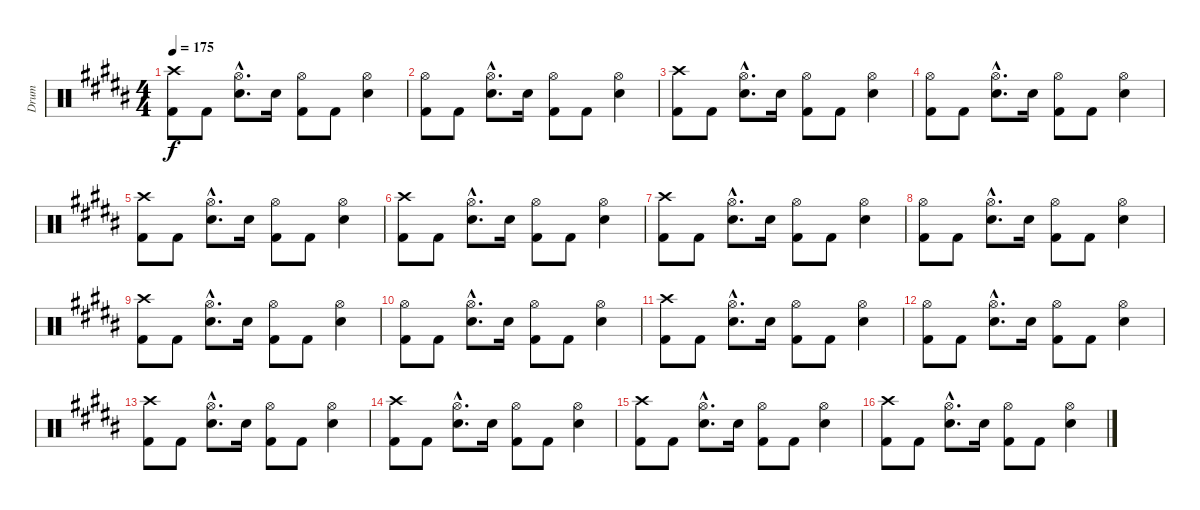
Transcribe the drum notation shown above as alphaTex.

\track ("Drum" "Drum") {instrument percussion}
\staff {score}
\articulation defaults
\ts (4 4)
\tempo 175
\clef neutral
\ks b
("Crash high (hit)" "Kick (hit) 2").8{dy f} "Kick (hit) 2".8 ("Hi-Hat (open)"{hac} "Snare (hit) 2"{hac}).8{d} "Snare (hit) 2".16 ("Hi-Hat (open)" "Kick (hit) 2").8 "Kick (hit) 2".8 ("Hi-Hat (open)" "Snare (hit) 2").4 |
("Hi-Hat (open)" "Kick (hit) 2").8 "Kick (hit) 2".8 ("Hi-Hat (open)"{hac} "Snare (hit) 2"{hac}).8{d} "Snare (hit) 2".16 ("Hi-Hat (open)" "Kick (hit) 2").8 "Kick (hit) 2".8 ("Hi-Hat (open)" "Snare (hit) 2").4 |
("Crash high (hit)" "Kick (hit) 2").8 "Kick (hit) 2".8 ("Hi-Hat (open)"{hac} "Snare (hit) 2"{hac}).8{d} "Snare (hit) 2".16 ("Hi-Hat (open)" "Kick (hit) 2").8 "Kick (hit) 2".8 ("Hi-Hat (open)" "Snare (hit) 2").4 |
("Hi-Hat (open)" "Kick (hit) 2").8 "Kick (hit) 2".8 ("Hi-Hat (open)"{hac} "Snare (hit) 2"{hac}).8{d} "Snare (hit) 2".16 ("Hi-Hat (open)" "Kick (hit) 2").8 "Kick (hit) 2".8 ("Hi-Hat (open)" "Snare (hit) 2").4 |
("Crash high (hit)" "Kick (hit) 2").8 "Kick (hit) 2".8 ("Hi-Hat (open)"{hac} "Snare (hit) 2"{hac}).8{d} "Snare (hit) 2".16 ("Hi-Hat (open)" "Kick (hit) 2").8 "Kick (hit) 2".8 ("Hi-Hat (open)" "Snare (hit) 2").4 |
("Crash high (hit)" "Kick (hit) 2").8 "Kick (hit) 2".8 ("Hi-Hat (open)"{hac} "Snare (hit) 2"{hac}).8{d} "Snare (hit) 2".16 ("Hi-Hat (open)" "Kick (hit) 2").8 "Kick (hit) 2".8 ("Hi-Hat (open)" "Snare (hit) 2").4 |
("Crash high (hit)" "Kick (hit) 2").8 "Kick (hit) 2".8 ("Hi-Hat (open)"{hac} "Snare (hit) 2"{hac}).8{d} "Snare (hit) 2".16 ("Hi-Hat (open)" "Kick (hit) 2").8 "Kick (hit) 2".8 ("Hi-Hat (open)" "Snare (hit) 2").4 |
("Hi-Hat (open)" "Kick (hit) 2").8 "Kick (hit) 2".8 ("Hi-Hat (open)"{hac} "Snare (hit) 2"{hac}).8{d} "Snare (hit) 2".16 ("Hi-Hat (open)" "Kick (hit) 2").8 "Kick (hit) 2".8 ("Hi-Hat (open)" "Snare (hit) 2").4 |
("Crash high (hit)" "Kick (hit) 2").8 "Kick (hit) 2".8 ("Hi-Hat (open)"{hac} "Snare (hit) 2"{hac}).8{d} "Snare (hit) 2".16 ("Hi-Hat (open)" "Kick (hit) 2").8 "Kick (hit) 2".8 ("Hi-Hat (open)" "Snare (hit) 2").4 |
("Hi-Hat (open)" "Kick (hit) 2").8 "Kick (hit) 2".8 ("Hi-Hat (open)"{hac} "Snare (hit) 2"{hac}).8{d} "Snare (hit) 2".16 ("Hi-Hat (open)" "Kick (hit) 2").8 "Kick (hit) 2".8 ("Hi-Hat (open)" "Snare (hit) 2").4 |
("Crash high (hit)" "Kick (hit) 2").8 "Kick (hit) 2".8 ("Hi-Hat (open)"{hac} "Snare (hit) 2"{hac}).8{d} "Snare (hit) 2".16 ("Hi-Hat (open)" "Kick (hit) 2").8 "Kick (hit) 2".8 ("Hi-Hat (open)" "Snare (hit) 2").4 |
("Hi-Hat (open)" "Kick (hit) 2").8 "Kick (hit) 2".8 ("Hi-Hat (open)"{hac} "Snare (hit) 2"{hac}).8{d} "Snare (hit) 2".16 ("Hi-Hat (open)" "Kick (hit) 2").8 "Kick (hit) 2".8 ("Hi-Hat (open)" "Snare (hit) 2").4 |
("Crash high (hit)" "Kick (hit) 2").8 "Kick (hit) 2".8 ("Hi-Hat (open)"{hac} "Snare (hit) 2"{hac}).8{d} "Snare (hit) 2".16 ("Hi-Hat (open)" "Kick (hit) 2").8 "Kick (hit) 2".8 ("Hi-Hat (open)" "Snare (hit) 2").4 |
("Crash high (hit)" "Kick (hit) 2").8 "Kick (hit) 2".8 ("Hi-Hat (open)"{hac} "Snare (hit) 2"{hac}).8{d} "Snare (hit) 2".16 ("Hi-Hat (open)" "Kick (hit) 2").8 "Kick (hit) 2".8 ("Hi-Hat (open)" "Snare (hit) 2").4 |
("Crash high (hit)" "Kick (hit) 2").8 "Kick (hit) 2".8 ("Hi-Hat (open)"{hac} "Snare (hit) 2"{hac}).8{d} "Snare (hit) 2".16 ("Hi-Hat (open)" "Kick (hit) 2").8 "Kick (hit) 2".8 ("Hi-Hat (open)" "Snare (hit) 2").4 |
("Crash high (hit)" "Kick (hit) 2").8 "Kick (hit) 2".8 ("Hi-Hat (open)"{hac} "Snare (hit) 2"{hac}).8{d} "Snare (hit) 2".16 ("Hi-Hat (open)" "Kick (hit) 2").8 "Kick (hit) 2".8 ("Hi-Hat (open)" "Snare (hit) 2").4
